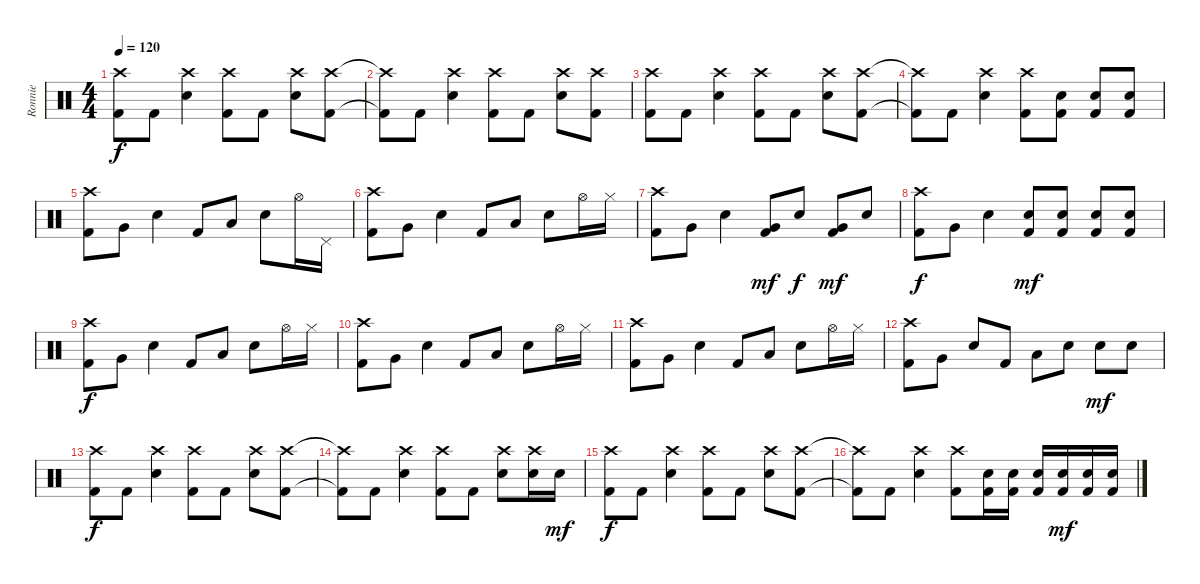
\track ("Ronnie" "Ronnie") {instrument percussion}
\staff {score}
\articulation defaults
\ts (4 4)
\tempo 120
\clef neutral
\ks c
("Crash high (hit)" "Kick (hit) 2").8{dy f} "Kick (hit) 2".8 ("Crash high (hit)" "Snare (hit) 2").4 ("Crash high (hit)" "Kick (hit) 2").8 "Kick (hit) 2".8 ("Crash high (hit)" "Snare (hit) 2").8 ("Crash high (hit)" "Kick (hit) 2").8 |
("Crash high (hit)"{t} "Kick (hit) 2"{t}).8 "Kick (hit) 2".8 ("Crash high (hit)" "Snare (hit) 2").4 ("Crash high (hit)" "Kick (hit) 2").8 "Kick (hit) 2".8 ("Crash high (hit)" "Snare (hit) 2").8 ("Crash high (hit)" "Kick (hit) 2").8 |
("Crash high (hit)" "Kick (hit) 2").8 "Kick (hit) 2".8 ("Crash high (hit)" "Snare (hit) 2").4 ("Crash high (hit)" "Kick (hit) 2").8 "Kick (hit) 2".8 ("Crash high (hit)" "Snare (hit) 2").8 ("Crash high (hit)" "Kick (hit) 2").8 |
("Crash high (hit)"{t} "Kick (hit) 2"{t}).8 "Kick (hit) 2".8 ("Crash high (hit)" "Snare (hit) 2").4 ("Crash high (hit)" "Kick (hit) 2").8 ("Kick (hit) 2" "Snare (hit) 2").8 ("Kick (hit) 2" "Snare (hit) 2").8 ("Kick (hit) 2" "Snare (hit) 2").8 |
("Crash high (hit)" "Kick (hit) 2").8 "Very Low Tom (hit)".8 "Snare (hit) 2".4 "Kick (hit) 2".8 "Low Floor Tom (hit)".8 "Snare (hit) 2".8 "Hi-Hat (open)".16 "Pedal Hi-Hat (hit)".16 |
("Crash high (hit)" "Kick (hit) 2").8 "Very Low Tom (hit)".8 "Snare (hit) 2".4 "Kick (hit) 2".8 "Low Floor Tom (hit)".8 "Snare (hit) 2".8 "Hi-Hat (open)".16 "Hi-Hat (closed)".16 |
("Crash high (hit)" "Kick (hit) 2").8 "Very Low Tom (hit)".8 "Snare (hit) 2".4 ("Very Low Tom (hit)" "Kick (hit) 2").8{dy mf} "Snare (hit) 2".8{dy f} ("Very Low Tom (hit)" "Kick (hit) 2").8{dy mf} "Snare (hit) 2".8 |
("Crash high (hit)" "Kick (hit) 2").8{dy f} "Very Low Tom (hit)".8 "Snare (hit) 2".4 ("Kick (hit) 2" "Snare (hit) 2").8{dy mf} ("Kick (hit) 2" "Snare (hit) 2").8 ("Kick (hit) 2" "Snare (hit) 2").8 ("Kick (hit) 2" "Snare (hit) 2").8 |
("Crash high (hit)" "Kick (hit) 2").8{dy f} "Very Low Tom (hit)".8 "Snare (hit) 2".4 "Kick (hit) 2".8 "Low Floor Tom (hit)".8 "Snare (hit) 2".8 "Hi-Hat (open)".16 "Hi-Hat (closed)".16 |
("Crash high (hit)" "Kick (hit) 2").8 "Very Low Tom (hit)".8 "Snare (hit) 2".4 "Kick (hit) 2".8 "Low Floor Tom (hit)".8 "Snare (hit) 2".8 "Hi-Hat (open)".16 "Hi-Hat (closed)".16 |
("Crash high (hit)" "Kick (hit) 2").8 "Very Low Tom (hit)".8 "Snare (hit) 2".4 "Kick (hit) 2".8 "Low Floor Tom (hit)".8 "Snare (hit) 2".8 "Hi-Hat (open)".16 "Hi-Hat (closed)".16 |
("Crash high (hit)" "Kick (hit) 2").8 "Very Low Tom (hit)".8 "Snare (hit) 2".8 "Kick (hit) 2".8 "Low Floor Tom (hit)".8 "Snare (hit) 2".8 "Snare (hit) 2".8{dy mf} "Snare (hit) 2".8 |
("Crash high (hit)" "Kick (hit) 2").8{dy f} "Kick (hit) 2".8 ("Crash high (hit)" "Snare (hit) 2").4 ("Crash high (hit)" "Kick (hit) 2").8 "Kick (hit) 2".8 ("Crash high (hit)" "Snare (hit) 2").8 ("Crash high (hit)" "Kick (hit) 2").8 |
("Crash high (hit)"{t} "Kick (hit) 2"{t}).8 "Kick (hit) 2".8 ("Crash high (hit)" "Snare (hit) 2").4 ("Crash high (hit)" "Kick (hit) 2").8 "Kick (hit) 2".8 ("Crash high (hit)" "Snare (hit) 2").8 ("Crash high (hit)" "Snare (hit) 2").16 "Snare (hit) 2".16{dy mf} |
("Crash high (hit)" "Kick (hit) 2").8{dy f} "Kick (hit) 2".8 ("Crash high (hit)" "Snare (hit) 2").4 ("Crash high (hit)" "Kick (hit) 2").8 "Kick (hit) 2".8 ("Crash high (hit)" "Snare (hit) 2").8 ("Crash high (hit)" "Kick (hit) 2").8 |
("Crash high (hit)"{t} "Kick (hit) 2"{t}).8 "Kick (hit) 2".8 ("Crash high (hit)" "Snare (hit) 2").4 ("Crash high (hit)" "Kick (hit) 2").8 ("Kick (hit) 2" "Snare (hit) 2").16 ("Kick (hit) 2" "Snare (hit) 2").16 ("Kick (hit) 2" "Snare (hit) 2").16 ("Kick (hit) 2" "Snare (hit) 2").16{dy mf} ("Kick (hit) 2" "Snare (hit) 2").16 ("Kick (hit) 2" "Snare (hit) 2").16
